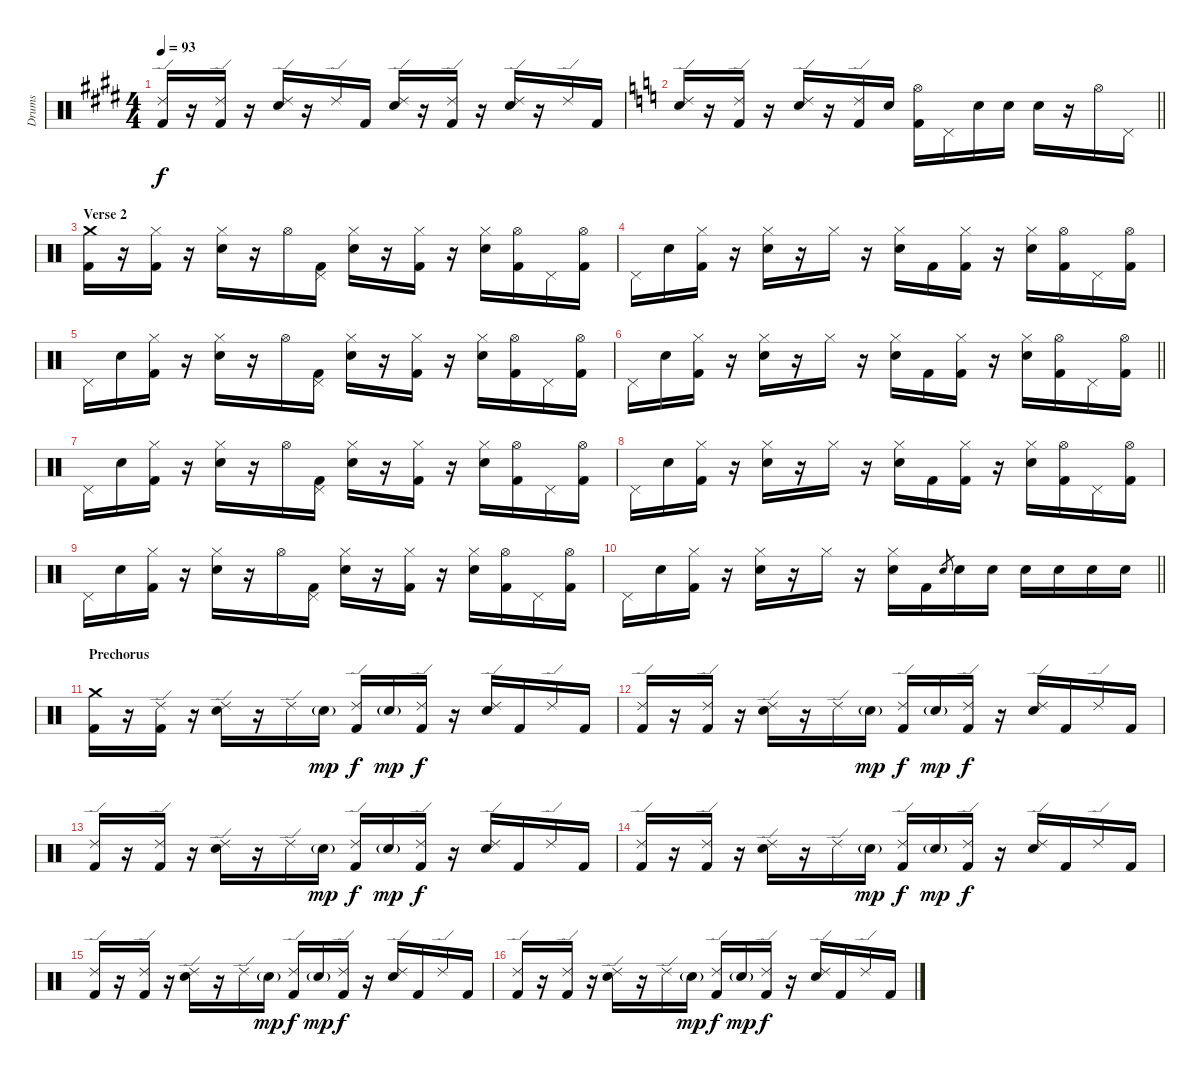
\track ("Drums" "Drums") {instrument percussion}
\staff {score}
\articulation defaults
\ts (4 4)
\tempo 93
\clef neutral
\ks e
("Ride (edge) 2" "Kick (hit) 2").16{dy f} r.16 ("Ride (edge) 2" "Kick (hit) 2").16 r.16 ("Ride (edge) 2" "Snare (hit) 2").16 r.16 "Ride (edge) 2".16 "Kick (hit) 2".16 ("Ride (edge) 2" "Snare (hit) 2").16 r.16 ("Ride (edge) 2" "Kick (hit) 2").16 r.16 ("Ride (edge) 2" "Snare (hit) 2").16 r.16 "Ride (edge) 2".16 "Kick (hit) 2".16 |
\barLineRight lightlight
\ks c
("Ride (edge) 2" "Snare (hit) 2").16 r.16 ("Ride (edge) 2" "Kick (hit) 2").16 r.16 ("Ride (edge) 2" "Snare (hit) 2").16 r.16 ("Ride (edge) 2" "Kick (hit) 2").16 "Snare (hit) 2".16 ("Hi-Hat (open)" "Kick (hit) 2").16 "Pedal Hi-Hat (hit)".16 "Snare (hit) 2".16 "Snare (hit) 2".16 "Snare (hit) 2".16 r.16 "Hi-Hat (open)".16 "Pedal Hi-Hat (hit)".16 |
\section ("" "Verse 2")
("Crash medium (hit)" "Kick (hit) 2").16 r.16 ("Hi-Hat (closed)" "Kick (hit) 2").16 r.16 ("Hi-Hat (closed)" "Snare (hit) 2").16 r.16 "Hi-Hat (open)".16 ("Pedal Hi-Hat (hit)" "Kick (hit) 2").16 ("Hi-Hat (closed)" "Snare (hit) 2").16 r.16 ("Hi-Hat (closed)" "Kick (hit) 2").16 r.16 ("Hi-Hat (closed)" "Snare (hit) 2").16 ("Hi-Hat (open)" "Kick (hit) 2").16 "Pedal Hi-Hat (hit)".16 ("Hi-Hat (open)" "Kick (hit) 2").16 |
"Pedal Hi-Hat (hit)".16 "Snare (hit) 2".16 ("Hi-Hat (closed)" "Kick (hit) 2").16 r.16 ("Hi-Hat (closed)" "Snare (hit) 2").16 r.16 "Hi-Hat (closed)".16 r.16 ("Hi-Hat (closed)" "Snare (hit) 2").16 "Kick (hit) 2".16 ("Hi-Hat (closed)" "Kick (hit) 2").16 r.16 ("Hi-Hat (closed)" "Snare (hit) 2").16 ("Hi-Hat (open)" "Kick (hit) 2").16 "Pedal Hi-Hat (hit)".16 ("Hi-Hat (open)" "Kick (hit) 2").16 |
"Pedal Hi-Hat (hit)".16 "Snare (hit) 2".16 ("Hi-Hat (closed)" "Kick (hit) 2").16 r.16 ("Hi-Hat (closed)" "Snare (hit) 2").16 r.16 "Hi-Hat (open)".16 ("Pedal Hi-Hat (hit)" "Kick (hit) 2").16 ("Hi-Hat (closed)" "Snare (hit) 2").16 r.16 ("Hi-Hat (closed)" "Kick (hit) 2").16 r.16 ("Hi-Hat (closed)" "Snare (hit) 2").16 ("Hi-Hat (open)" "Kick (hit) 2").16 "Pedal Hi-Hat (hit)".16 ("Hi-Hat (open)" "Kick (hit) 2").16 |
\barLineRight lightlight "Pedal Hi-Hat (hit)".16 "Snare (hit) 2".16
("Hi-Hat (closed)" "Kick (hit) 2").16 r.16 ("Hi-Hat (closed)" "Snare (hit) 2").16 r.16 "Hi-Hat (closed)".16 r.16 ("Hi-Hat (closed)" "Snare (hit) 2").16 "Kick (hit) 2".16 ("Hi-Hat (closed)" "Kick (hit) 2").16 r.16 ("Hi-Hat (closed)" "Snare (hit) 2").16 ("Hi-Hat (open)" "Kick (hit) 2").16 "Pedal Hi-Hat (hit)".16 ("Hi-Hat (open)" "Kick (hit) 2").16 |
"Pedal Hi-Hat (hit)".16 "Snare (hit) 2".16 ("Hi-Hat (closed)" "Kick (hit) 2").16 r.16 ("Hi-Hat (closed)" "Snare (hit) 2").16 r.16 "Hi-Hat (open)".16 ("Pedal Hi-Hat (hit)" "Kick (hit) 2").16 ("Hi-Hat (closed)" "Snare (hit) 2").16 r.16 ("Hi-Hat (closed)" "Kick (hit) 2").16 r.16 ("Hi-Hat (closed)" "Snare (hit) 2").16 ("Hi-Hat (open)" "Kick (hit) 2").16 "Pedal Hi-Hat (hit)".16 ("Hi-Hat (open)" "Kick (hit) 2").16 |
"Pedal Hi-Hat (hit)".16 "Snare (hit) 2".16 ("Hi-Hat (closed)" "Kick (hit) 2").16 r.16 ("Hi-Hat (closed)" "Snare (hit) 2").16 r.16 "Hi-Hat (closed)".16 r.16 ("Hi-Hat (closed)" "Snare (hit) 2").16 "Kick (hit) 2".16 ("Hi-Hat (closed)" "Kick (hit) 2").16 r.16 ("Hi-Hat (closed)" "Snare (hit) 2").16 ("Hi-Hat (open)" "Kick (hit) 2").16 "Pedal Hi-Hat (hit)".16 ("Hi-Hat (open)" "Kick (hit) 2").16 |
"Pedal Hi-Hat (hit)".16 "Snare (hit) 2".16 ("Hi-Hat (closed)" "Kick (hit) 2").16 r.16 ("Hi-Hat (closed)" "Snare (hit) 2").16 r.16 "Hi-Hat (open)".16 ("Pedal Hi-Hat (hit)" "Kick (hit) 2").16 ("Hi-Hat (closed)" "Snare (hit) 2").16 r.16 ("Hi-Hat (closed)" "Kick (hit) 2").16 r.16 ("Hi-Hat (closed)" "Snare (hit) 2").16 ("Hi-Hat (open)" "Kick (hit) 2").16 "Pedal Hi-Hat (hit)".16 ("Hi-Hat (open)" "Kick (hit) 2").16 |
\barLineRight lightlight "Pedal Hi-Hat (hit)".16 "Snare (hit) 2".16
("Hi-Hat (closed)" "Kick (hit) 2").16 r.16 ("Hi-Hat (closed)" "Snare (hit) 2").16 r.16 "Hi-Hat (closed)".16 r.16 ("Hi-Hat (closed)" "Snare (hit) 2").16 "Kick (hit) 2".16 "Snare (hit) 2".8{gr} "Snare (hit) 2".16 "Snare (hit) 2".16 "Snare (hit) 2".16 "Snare (hit) 2".16 "Snare (hit) 2".16 "Snare (hit) 2".16 |
\section ("" "Prechorus")
("Crash medium (hit)" "Kick (hit) 2").16 r.16 ("Ride (edge) 2" "Kick (hit) 2").16 r.16 ("Ride (edge) 2" "Snare (hit) 2").16 r.16 "Ride (edge) 2".16 "Snare (hit) 2"{g}.16{dy mp} ("Ride (edge) 2" "Kick (hit) 2").16{dy f} "Snare (hit) 2"{g}.16{dy mp} ("Ride (edge) 2" "Kick (hit) 2").16{dy f} r.16 ("Ride (edge) 2" "Snare (hit) 2").16 "Kick (hit) 2".16 "Ride (edge) 2".16 "Kick (hit) 2".16 |
("Ride (edge) 2" "Kick (hit) 2").16 r.16 ("Ride (edge) 2" "Kick (hit) 2").16 r.16 ("Ride (edge) 2" "Snare (hit) 2").16 r.16 "Ride (edge) 2".16 "Snare (hit) 2"{g}.16{dy mp} ("Ride (edge) 2" "Kick (hit) 2").16{dy f} "Snare (hit) 2"{g}.16{dy mp} ("Ride (edge) 2" "Kick (hit) 2").16{dy f} r.16 ("Ride (edge) 2" "Snare (hit) 2").16 "Kick (hit) 2".16 "Ride (edge) 2".16 "Kick (hit) 2".16 |
("Ride (edge) 2" "Kick (hit) 2").16 r.16 ("Ride (edge) 2" "Kick (hit) 2").16 r.16 ("Ride (edge) 2" "Snare (hit) 2").16 r.16 "Ride (edge) 2".16 "Snare (hit) 2"{g}.16{dy mp} ("Ride (edge) 2" "Kick (hit) 2").16{dy f} "Snare (hit) 2"{g}.16{dy mp} ("Ride (edge) 2" "Kick (hit) 2").16{dy f} r.16 ("Ride (edge) 2" "Snare (hit) 2").16 "Kick (hit) 2".16 "Ride (edge) 2".16 "Kick (hit) 2".16 |
("Ride (edge) 2" "Kick (hit) 2").16 r.16 ("Ride (edge) 2" "Kick (hit) 2").16 r.16 ("Ride (edge) 2" "Snare (hit) 2").16 r.16 "Ride (edge) 2".16 "Snare (hit) 2"{g}.16{dy mp} ("Ride (edge) 2" "Kick (hit) 2").16{dy f} "Snare (hit) 2"{g}.16{dy mp} ("Ride (edge) 2" "Kick (hit) 2").16{dy f} r.16 ("Ride (edge) 2" "Snare (hit) 2").16 "Kick (hit) 2".16 "Ride (edge) 2".16 "Kick (hit) 2".16 |
("Ride (edge) 2" "Kick (hit) 2").16 r.16 ("Ride (edge) 2" "Kick (hit) 2").16 r.16 ("Ride (edge) 2" "Snare (hit) 2").16 r.16 "Ride (edge) 2".16 "Snare (hit) 2"{g}.16{dy mp} ("Ride (edge) 2" "Kick (hit) 2").16{dy f} "Snare (hit) 2"{g}.16{dy mp} ("Ride (edge) 2" "Kick (hit) 2").16{dy f} r.16 ("Ride (edge) 2" "Snare (hit) 2").16 "Kick (hit) 2".16 "Ride (edge) 2".16 "Kick (hit) 2".16 |
("Ride (edge) 2" "Kick (hit) 2").16 r.16 ("Ride (edge) 2" "Kick (hit) 2").16 r.16 ("Ride (edge) 2" "Snare (hit) 2").16 r.16 "Ride (edge) 2".16 "Snare (hit) 2"{g}.16{dy mp} ("Ride (edge) 2" "Kick (hit) 2").16{dy f} "Snare (hit) 2"{g}.16{dy mp} ("Ride (edge) 2" "Kick (hit) 2").16{dy f} r.16 ("Ride (edge) 2" "Snare (hit) 2").16 "Kick (hit) 2".16 "Ride (edge) 2".16 "Kick (hit) 2".16
